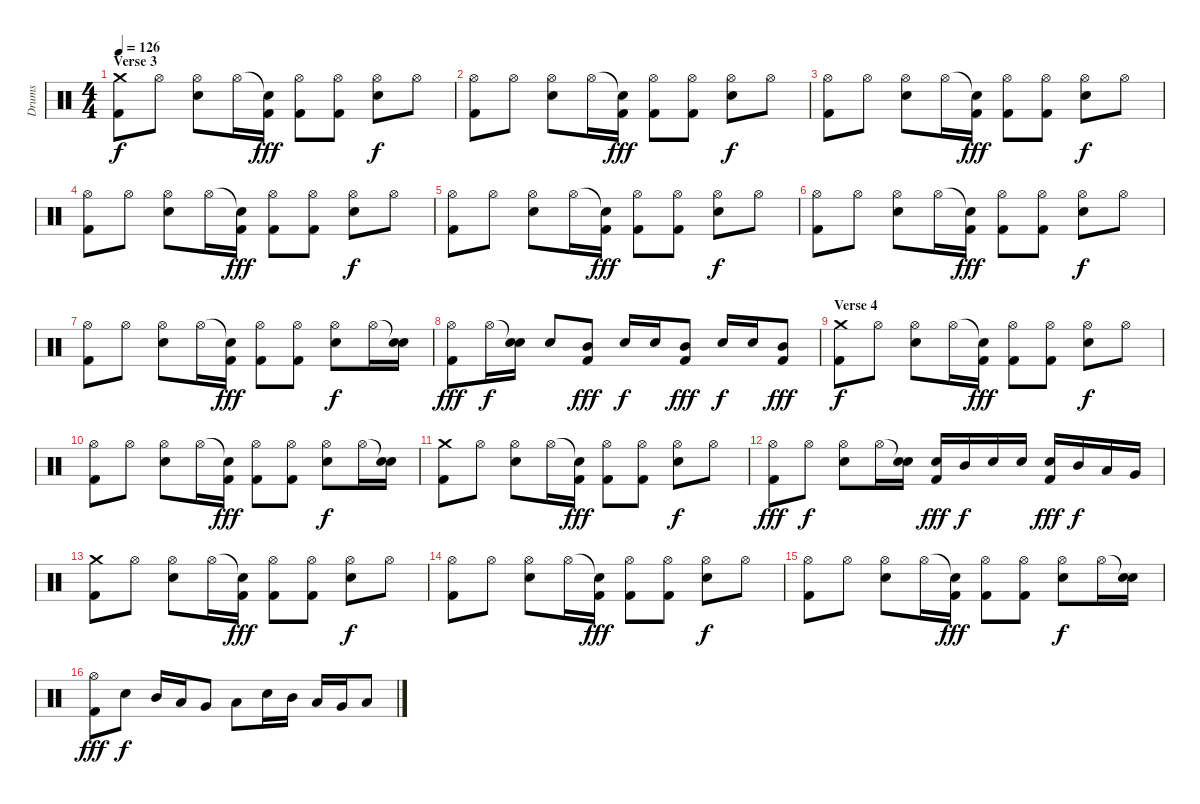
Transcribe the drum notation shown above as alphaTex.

\track ("Drums" "Drums") {instrument percussion}
\staff {score}
\articulation defaults
\ts (4 4)
\section ("" "Verse 3")
\tempo 126
\clef neutral
\ks c
("Crash medium (hit)" "Kick (hit) 2").8{dy f} "Hi-Hat (open)".8 ("Hi-Hat (open)" "Snare (hit) 2").8 "Hi-Hat (open)".16 ("Snare (hit)"{t} "Kick (hit) 2").16{dy fff} ("Hi-Hat (open)" "Kick (hit) 2").8 ("Hi-Hat (open)" "Kick (hit) 2").8 ("Hi-Hat (open)" "Snare (hit) 2").8{dy f} "Hi-Hat (open)".8 |
("Hi-Hat (open)" "Kick (hit) 2").8 "Hi-Hat (open)".8 ("Hi-Hat (open)" "Snare (hit) 2").8 "Hi-Hat (open)".16 ("Snare (hit)"{t} "Kick (hit) 2").16{dy fff} ("Hi-Hat (open)" "Kick (hit) 2").8 ("Hi-Hat (open)" "Kick (hit) 2").8 ("Hi-Hat (open)" "Snare (hit) 2").8{dy f} "Hi-Hat (open)".8 |
("Hi-Hat (open)" "Kick (hit) 2").8 "Hi-Hat (open)".8 ("Hi-Hat (open)" "Snare (hit) 2").8 "Hi-Hat (open)".16 ("Snare (hit)"{t} "Kick (hit) 2").16{dy fff} ("Hi-Hat (open)" "Kick (hit) 2").8 ("Hi-Hat (open)" "Kick (hit) 2").8 ("Hi-Hat (open)" "Snare (hit) 2").8{dy f} "Hi-Hat (open)".8 |
("Hi-Hat (open)" "Kick (hit) 2").8 "Hi-Hat (open)".8 ("Hi-Hat (open)" "Snare (hit) 2").8 "Hi-Hat (open)".16 ("Snare (hit)"{t} "Kick (hit) 2").16{dy fff} ("Hi-Hat (open)" "Kick (hit) 2").8 ("Hi-Hat (open)" "Kick (hit) 2").8 ("Hi-Hat (open)" "Snare (hit) 2").8{dy f} "Hi-Hat (open)".8 |
("Hi-Hat (open)" "Kick (hit) 2").8 "Hi-Hat (open)".8 ("Hi-Hat (open)" "Snare (hit) 2").8 "Hi-Hat (open)".16 ("Snare (hit)"{t} "Kick (hit) 2").16{dy fff} ("Hi-Hat (open)" "Kick (hit) 2").8 ("Hi-Hat (open)" "Kick (hit) 2").8 ("Hi-Hat (open)" "Snare (hit) 2").8{dy f} "Hi-Hat (open)".8 |
("Hi-Hat (open)" "Kick (hit) 2").8 "Hi-Hat (open)".8 ("Hi-Hat (open)" "Snare (hit) 2").8 "Hi-Hat (open)".16 ("Snare (hit)"{t} "Kick (hit) 2").16{dy fff} ("Hi-Hat (open)" "Kick (hit) 2").8 ("Hi-Hat (open)" "Kick (hit) 2").8 ("Hi-Hat (open)" "Snare (hit) 2").8{dy f} "Hi-Hat (open)".8 |
("Hi-Hat (open)" "Kick (hit) 2").8 "Hi-Hat (open)".8 ("Hi-Hat (open)" "Snare (hit) 2").8 "Hi-Hat (open)".16 ("Snare (hit)"{t} "Kick (hit) 2").16{dy fff} ("Hi-Hat (open)" "Kick (hit) 2").8 ("Hi-Hat (open)" "Kick (hit) 2").8 ("Hi-Hat (open)" "Snare (hit) 2").8{dy f} "Hi-Hat (open)".16 ("Snare (hit)"{t} "Snare (hit) 2").16 |
("Hi-Hat (open)" "Kick (hit) 2").8{dy fff} "Hi-Hat (open)".16{dy f} ("Snare (hit)"{t} "Snare (hit) 2").16 "Snare (hit) 2".8 ("Mid Tom (hit)" "Kick (hit) 2").8{dy fff} "Snare (hit) 2".16{dy f} "Snare (hit) 2".16 ("Mid Tom (hit)" "Kick (hit) 2").8{dy fff} "Snare (hit) 2".16{dy f} "Snare (hit) 2".16 ("Mid Tom (hit)" "Kick (hit) 2").8{dy fff} |
\section ("" "Verse 4")
("Crash medium (hit)" "Kick (hit) 2").8{dy f} "Hi-Hat (open)".8 ("Hi-Hat (open)" "Snare (hit) 2").8 "Hi-Hat (open)".16 ("Snare (hit)"{t} "Kick (hit) 2").16{dy fff} ("Hi-Hat (open)" "Kick (hit) 2").8 ("Hi-Hat (open)" "Kick (hit) 2").8 ("Hi-Hat (open)" "Snare (hit) 2").8{dy f} "Hi-Hat (open)".8 |
("Hi-Hat (open)" "Kick (hit) 2").8 "Hi-Hat (open)".8 ("Hi-Hat (open)" "Snare (hit) 2").8 "Hi-Hat (open)".16 ("Snare (hit)"{t} "Kick (hit) 2").16{dy fff} ("Hi-Hat (open)" "Kick (hit) 2").8 ("Hi-Hat (open)" "Kick (hit) 2").8 ("Hi-Hat (open)" "Snare (hit) 2").8{dy f} "Hi-Hat (open)".16 ("Snare (hit)"{t} "Snare (hit) 2").16 |
("Crash medium (hit)" "Kick (hit) 2").8 "Hi-Hat (open)".8 ("Hi-Hat (open)" "Snare (hit) 2").8 "Hi-Hat (open)".16 ("Snare (hit)"{t} "Kick (hit) 2").16{dy fff} ("Hi-Hat (open)" "Kick (hit) 2").8 ("Hi-Hat (open)" "Kick (hit) 2").8 ("Hi-Hat (open)" "Snare (hit) 2").8{dy f} "Hi-Hat (open)".8 |
("Hi-Hat (open)" "Kick (hit) 2").8{dy fff} "Hi-Hat (open)".8{dy f} ("Hi-Hat (open)" "Snare (hit) 2").8 "Hi-Hat (open)".16 ("Snare (hit)"{t} "Snare (hit) 2").16 ("Snare (hit) 2" "Kick (hit) 2").16{dy fff} "Mid Tom (hit)".16{dy f} "Snare (hit) 2".16 "Snare (hit) 2".16 ("Snare (hit) 2" "Kick (hit) 2").16{dy fff} "Mid Tom (hit)".16{dy f} "Low Tom (hit)".16 "Very Low Tom (hit)".16 |
("Crash medium (hit)" "Kick (hit) 2").8 "Hi-Hat (open)".8 ("Hi-Hat (open)" "Snare (hit) 2").8 "Hi-Hat (open)".16 ("Snare (hit)"{t} "Kick (hit) 2").16{dy fff} ("Hi-Hat (open)" "Kick (hit) 2").8 ("Hi-Hat (open)" "Kick (hit) 2").8 ("Hi-Hat (open)" "Snare (hit) 2").8{dy f} "Hi-Hat (open)".8 |
("Hi-Hat (open)" "Kick (hit) 2").8 "Hi-Hat (open)".8 ("Hi-Hat (open)" "Snare (hit) 2").8 "Hi-Hat (open)".16 ("Snare (hit)"{t} "Kick (hit) 2").16{dy fff} ("Hi-Hat (open)" "Kick (hit) 2").8 ("Hi-Hat (open)" "Kick (hit) 2").8 ("Hi-Hat (open)" "Snare (hit) 2").8{dy f} "Hi-Hat (open)".8 |
("Hi-Hat (open)" "Kick (hit) 2").8 "Hi-Hat (open)".8 ("Hi-Hat (open)" "Snare (hit) 2").8 "Hi-Hat (open)".16 ("Snare (hit)"{t} "Kick (hit) 2").16{dy fff} ("Hi-Hat (open)" "Kick (hit) 2").8 ("Hi-Hat (open)" "Kick (hit) 2").8 ("Hi-Hat (open)" "Snare (hit) 2").8{dy f} "Hi-Hat (open)".16 ("Snare (hit)"{t} "Snare (hit) 2").16 |
("Hi-Hat (open)" "Kick (hit) 2").8{dy fff} "Snare (hit) 2".8{dy f} "Mid Tom (hit)".16 "Low Tom (hit)".16 "Very Low Tom (hit)".8 "Low Floor Tom (hit)".8 "Snare (hit) 2".16 "Mid Tom (hit)".16 "Low Tom (hit)".16 "Very Low Tom (hit)".16 "Low Floor Tom (hit)".8
